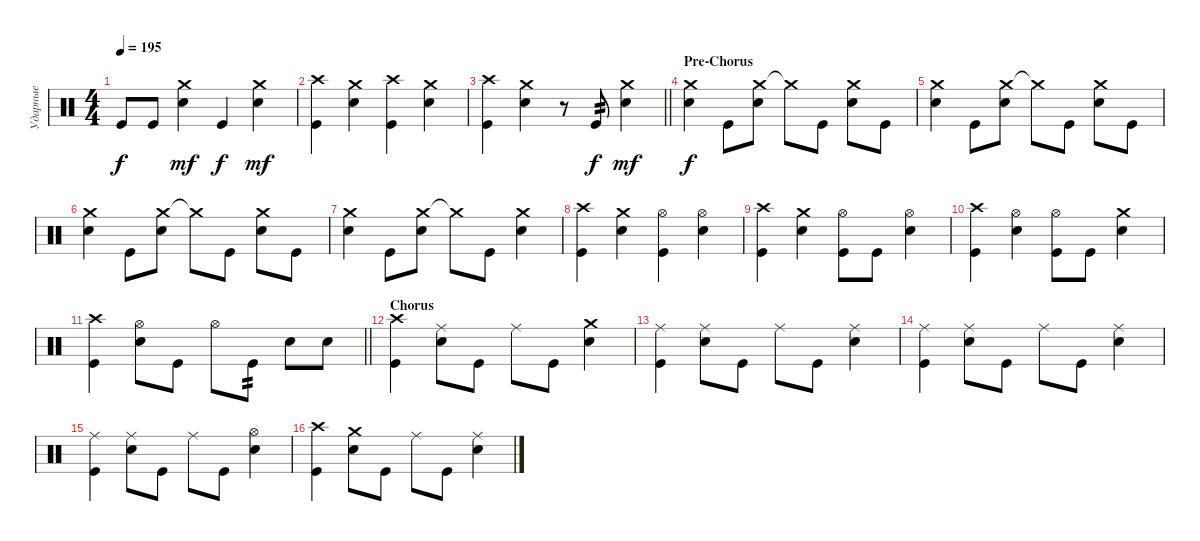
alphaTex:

\track ("Ударные" "Ударные") {instrument percussion}
\staff {score}
\articulation defaults
\ts (4 4)
\tempo 195
\clef neutral
\ks c "Kick (hit)".8{dy f} "Kick (hit)".8
("Snare (hit) 2" "Crash medium (hit)").4{dy mf} "Kick (hit)".4{dy f} ("Snare (hit) 2" "Crash medium (hit)").4{dy mf} |
("Kick (hit)" "Crash high (hit)").4 ("Snare (hit) 2" "Crash medium (hit)").4 ("Kick (hit)" "Crash high (hit)").4 ("Snare (hit) 2" "Crash medium (hit)").4 |
\barLineRight lightlight
("Kick (hit)" "Crash high (hit)").4 ("Snare (hit) 2" "Crash medium (hit)").4 r.8 "Kick (hit)".8{tp 2 dy f} ("Snare (hit) 2" "Crash medium (hit)").4{dy mf} |
\section ("" "Pre-Chorus")
("Snare (hit) 2" "Crash medium (hit)").4{dy f} "Kick (hit)".8 ("Crash medium (hit)" "Snare (hit) 2").8 "Crash medium (hit)"{t}.8 "Kick (hit)".8 ("Snare (hit) 2" "Crash medium (hit)").8 "Kick (hit)".8 |
("Snare (hit) 2" "Crash medium (hit)").4 "Kick (hit)".8 ("Crash medium (hit)" "Snare (hit) 2").8 "Crash medium (hit)"{t}.8 "Kick (hit)".8 ("Snare (hit) 2" "Crash medium (hit)").8 "Kick (hit)".8 |
("Snare (hit) 2" "Crash medium (hit)").4 "Kick (hit)".8 ("Crash medium (hit)" "Snare (hit) 2").8 "Crash medium (hit)"{t}.8 "Kick (hit)".8 ("Snare (hit) 2" "Crash medium (hit)").8 "Kick (hit)".8 |
("Snare (hit) 2" "Crash medium (hit)").4 "Kick (hit)".8 ("Crash medium (hit)" "Snare (hit) 2").8 "Crash medium (hit)"{t}.8 "Kick (hit)".8 ("Snare (hit) 2" "Crash medium (hit)").4 |
("Kick (hit)" "Crash high (hit)").4 ("Crash medium (hit)" "Snare (hit) 2").4 ("Kick (hit)" "Hi-Hat (open)").4 ("Snare (hit) 2" "Hi-Hat (open)").4 |
("Kick (hit)" "Crash high (hit)").4 ("Snare (hit) 2" "Crash medium (hit)").4 ("Kick (hit)" "Hi-Hat (open)").8 "Kick (hit)".8 ("Snare (hit) 2" "Hi-Hat (open)").4 |
("Kick (hit)" "Crash high (hit)").4 ("Snare (hit) 2" "Hi-Hat (open)").4 ("Kick (hit)" "Hi-Hat (open)").8 "Kick (hit)".8 ("Snare (hit) 2" "Crash medium (hit)").4 |
\barLineRight lightlight
("Kick (hit)" "Crash high (hit)").4 ("Snare (hit) 2" "Hi-Hat (open)").8 "Kick (hit)".8 "Hi-Hat (open)".8 "Kick (hit)".8{tp 2} "Snare (hit) 2".8 "Snare (hit) 2".8 |
\section ("" "Chorus")
("Kick (hit)" "Crash high (hit)").4 ("Snare (hit) 2" "Ride (middle)").8 "Kick (hit)".8 "Ride (middle)".8 "Kick (hit)".8 ("Snare (hit) 2" "Crash medium (hit)").4 |
("Kick (hit)" "Ride (middle)").4 ("Snare (hit) 2" "Ride (middle)").8 "Kick (hit)".8 "Ride (middle)".8 "Kick (hit)".8 ("Snare (hit) 2" "Ride (middle)").4 |
("Kick (hit)" "Ride (middle)").4 ("Snare (hit) 2" "Ride (middle)").8 "Kick (hit)".8 "Ride (middle)".8 "Kick (hit)".8 ("Snare (hit) 2" "Ride (middle)").4 |
("Kick (hit)" "Ride (middle)").4 ("Snare (hit) 2" "Ride (middle)").8 "Kick (hit)".8 "Ride (middle)".8 "Kick (hit)".8 ("Snare (hit) 2" "Hi-Hat (open)").4 |
("Kick (hit)" "Crash high (hit)").4 ("Snare (hit) 2" "Crash medium (hit)").8 "Kick (hit)".8 "Ride (middle)".8 "Kick (hit)".8 ("Snare (hit) 2" "Ride (middle)").4
